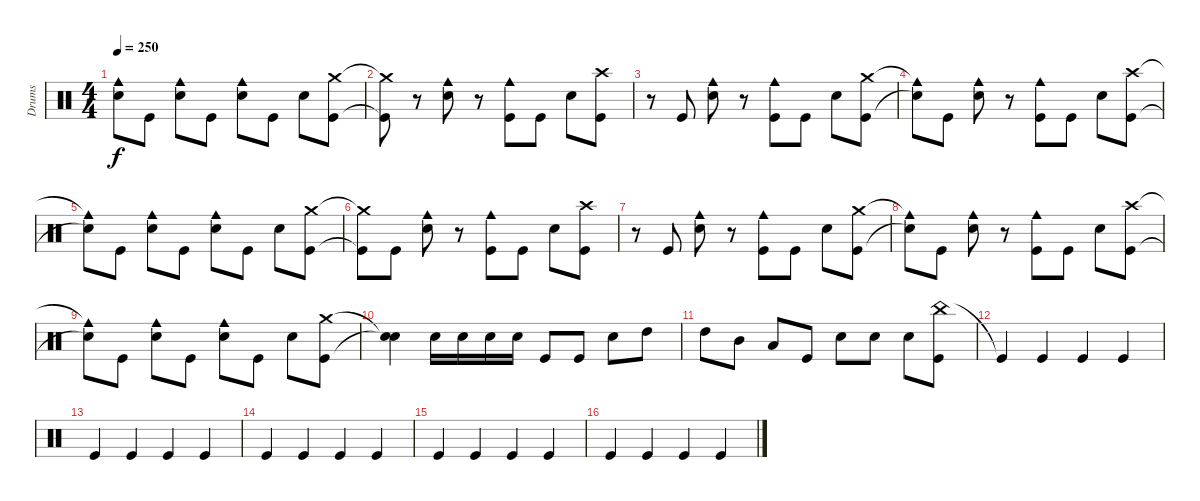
\track ("Drums" "Drums") {instrument percussion}
\staff {score}
\articulation defaults
\ts (4 4)
\tempo 250
\clef neutral
\ks c
("Cowbell medium (hit)"{t} "Snare (hit)"{t}).8{dy f} "Kick (hit)".8 ("Cowbell medium (hit)" "Electric Snare (hit)").8 "Kick (hit)".8 ("Cowbell medium (hit)" "Electric Snare (hit)").8 "Kick (hit)".8 "Electric Snare (hit)".8 ("Crash medium (hit)" "Kick (hit)").8 |
("Crash medium (hit)"{t} "Kick (hit)"{t}).8 r.8 ("Cowbell medium (hit)" "Electric Snare (hit)").8 r.8 ("Cowbell medium (hit)" "Kick (hit)").8 "Kick (hit)".8 "Electric Snare (hit)".8 ("Crash high (hit)" "Kick (hit)").8 |
r.8 "Kick (hit)".8 ("Cowbell medium (hit)" "Electric Snare (hit)").8 r.8 ("Cowbell medium (hit)" "Kick (hit)").8 "Kick (hit)".8 "Electric Snare (hit)".8 ("Crash medium (hit)" "Kick (hit)").8 |
("Cowbell medium (hit)"{t} "Snare (hit)"{t}).8 "Kick (hit)".8 ("Cowbell medium (hit)" "Electric Snare (hit)").8 r.8 ("Cowbell medium (hit)" "Kick (hit)").8 "Kick (hit)".8 "Electric Snare (hit)".8 ("Crash high (hit)" "Kick (hit)").8 |
("Cowbell medium (hit)"{t} "Snare (hit)"{t}).8 "Kick (hit)".8 ("Cowbell medium (hit)" "Electric Snare (hit)").8 "Kick (hit)".8 ("Cowbell medium (hit)" "Electric Snare (hit)").8 "Kick (hit)".8 "Electric Snare (hit)".8 ("Crash medium (hit)" "Kick (hit)").8 |
("Crash medium (hit)"{t} "Kick (hit)"{t}).8 "Kick (hit)".8 ("Cowbell medium (hit)" "Electric Snare (hit)").8 r.8 ("Cowbell medium (hit)" "Kick (hit)").8 "Kick (hit)".8 "Electric Snare (hit)".8 ("Crash high (hit)" "Kick (hit)").8 |
r.8 "Kick (hit)".8 ("Cowbell medium (hit)" "Electric Snare (hit)").8 r.8 ("Cowbell medium (hit)" "Kick (hit)").8 "Kick (hit)".8 "Electric Snare (hit)".8 ("Crash medium (hit)" "Kick (hit)").8 |
("Cowbell medium (hit)"{t} "Snare (hit)"{t}).8 "Kick (hit)".8 ("Cowbell medium (hit)" "Electric Snare (hit)").8 r.8 ("Cowbell medium (hit)" "Kick (hit)").8 "Kick (hit)".8 "Electric Snare (hit)".8 ("Crash high (hit)" "Kick (hit)").8 |
("Cowbell medium (hit)"{t} "Snare (hit)"{t}).8 "Kick (hit)".8 ("Cowbell medium (hit)" "Electric Snare (hit)").8 "Kick (hit)".8 ("Cowbell medium (hit)" "Electric Snare (hit)").8 "Kick (hit)".8 "Electric Snare (hit)".8 ("Crash medium (hit)" "Kick (hit)").8 |
("Snare (hit)"{t} "Snare (hit)"{t}).4 "Electric Snare (hit)".16 "Electric Snare (hit)".16 "Electric Snare (hit)".16 "Electric Snare (hit)".16 "Kick (hit)".8 "Kick (hit)".8 "Electric Snare (hit)".8 "High Tom (hit)".8 |
"High Tom (hit)".8 "Mid Tom (hit)".8 "Low Tom (hit)".8 "Kick (hit)".8 "Electric Snare (hit)".8 "Electric Snare (hit)".8 "Electric Snare (hit)".8 ("China (hit)" "Kick (hit)").8 |
"Kick (hit)"{t}.4 "Kick (hit)".4 "Kick (hit)".4 "Kick (hit)".4 |
"Kick (hit)".4 "Kick (hit)".4 "Kick (hit)".4 "Kick (hit)".4 |
"Kick (hit)".4 "Kick (hit)".4 "Kick (hit)".4 "Kick (hit)".4 |
"Kick (hit)".4 "Kick (hit)".4 "Kick (hit)".4 "Kick (hit)".4 |
"Kick (hit)".4 "Kick (hit)".4 "Kick (hit)".4 "Kick (hit)".4
